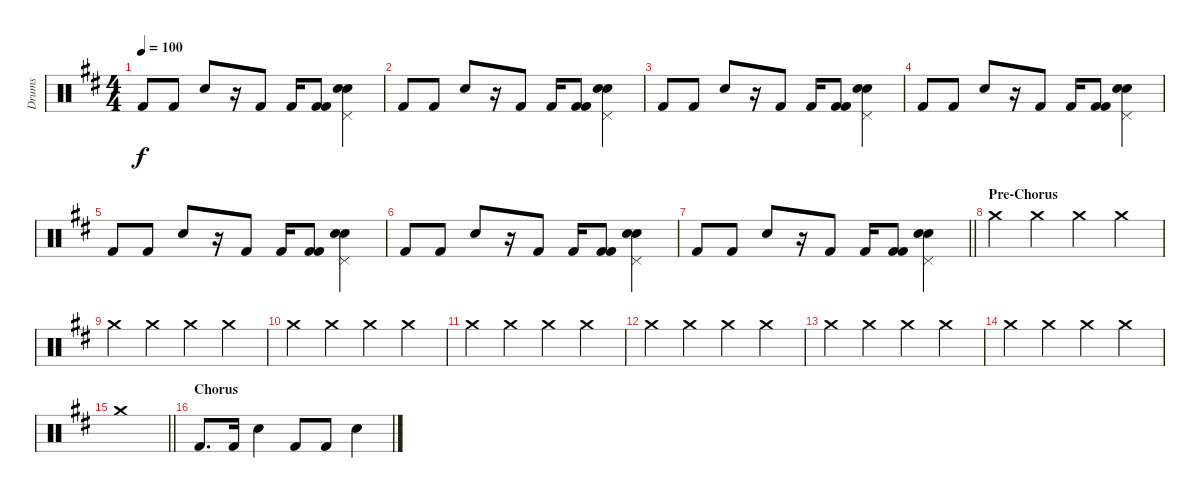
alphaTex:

\track ("Drums" "Drums") {instrument percussion}
\staff {score}
\articulation defaults
\ts (4 4)
\tempo 100
\clef neutral
\ks d "Kick (hit) 2".8{dy f} "Kick (hit) 2".8 "Snare (hit) 2".8
r.16 "Kick (hit) 2".8 "Kick (hit) 2".16 ("Kick (hit) 2" "Kick (hit) 2").8 ("Snare (hit) 2" "Pedal Hi-Hat (hit)" "Electric Snare (hit)").4 |
"Kick (hit) 2".8 "Kick (hit) 2".8 "Snare (hit) 2".8 r.16 "Kick (hit) 2".8 "Kick (hit) 2".16 ("Kick (hit) 2" "Kick (hit) 2").8 ("Snare (hit) 2" "Pedal Hi-Hat (hit)" "Electric Snare (hit)").4 |
"Kick (hit) 2".8 "Kick (hit) 2".8 "Snare (hit) 2".8 r.16 "Kick (hit) 2".8 "Kick (hit) 2".16 ("Kick (hit) 2" "Kick (hit) 2").8 ("Snare (hit) 2" "Pedal Hi-Hat (hit)" "Electric Snare (hit)").4 |
"Kick (hit) 2".8 "Kick (hit) 2".8 "Snare (hit) 2".8 r.16 "Kick (hit) 2".8 "Kick (hit) 2".16 ("Kick (hit) 2" "Kick (hit) 2").8 ("Snare (hit) 2" "Pedal Hi-Hat (hit)" "Electric Snare (hit)").4 |
"Kick (hit) 2".8 "Kick (hit) 2".8 "Snare (hit) 2".8 r.16 "Kick (hit) 2".8 "Kick (hit) 2".16 ("Kick (hit) 2" "Kick (hit) 2").8 ("Snare (hit) 2" "Pedal Hi-Hat (hit)" "Electric Snare (hit)").4 |
"Kick (hit) 2".8 "Kick (hit) 2".8 "Snare (hit) 2".8 r.16 "Kick (hit) 2".8 "Kick (hit) 2".16 ("Kick (hit) 2" "Kick (hit) 2").8 ("Snare (hit) 2" "Pedal Hi-Hat (hit)" "Electric Snare (hit)").4 |
\barLineRight lightlight "Kick (hit) 2".8 "Kick (hit) 2".8 "Snare (hit) 2".8
r.16 "Kick (hit) 2".8 "Kick (hit) 2".16 ("Kick (hit) 2" "Kick (hit) 2").8 ("Snare (hit) 2" "Pedal Hi-Hat (hit)" "Electric Snare (hit)").4 |
\section ("" "Pre-Chorus")
"Crash medium (hit)".4 "Crash medium (hit)".4 "Crash medium (hit)".4 "Crash medium (hit)".4 |
"Crash medium (hit)".4 "Crash medium (hit)".4 "Crash medium (hit)".4 "Crash medium (hit)".4 |
"Crash medium (hit)".4 "Crash medium (hit)".4 "Crash medium (hit)".4 "Crash medium (hit)".4 |
"Crash medium (hit)".4 "Crash medium (hit)".4 "Crash medium (hit)".4 "Crash medium (hit)".4 |
"Crash medium (hit)".4 "Crash medium (hit)".4 "Crash medium (hit)".4 "Crash medium (hit)".4 |
"Crash medium (hit)".4 "Crash medium (hit)".4 "Crash medium (hit)".4 "Crash medium (hit)".4 |
"Crash medium (hit)".4 "Crash medium (hit)".4 "Crash medium (hit)".4 "Crash medium (hit)".4 |
\barLineRight lightlight "Crash medium (hit)".1
|
\section ("" "Chorus")
"Kick (hit) 2".8{d} "Kick (hit) 2".16 "Snare (hit) 2".4 "Kick (hit) 2".8 "Kick (hit) 2".8 "Snare (hit) 2".4
